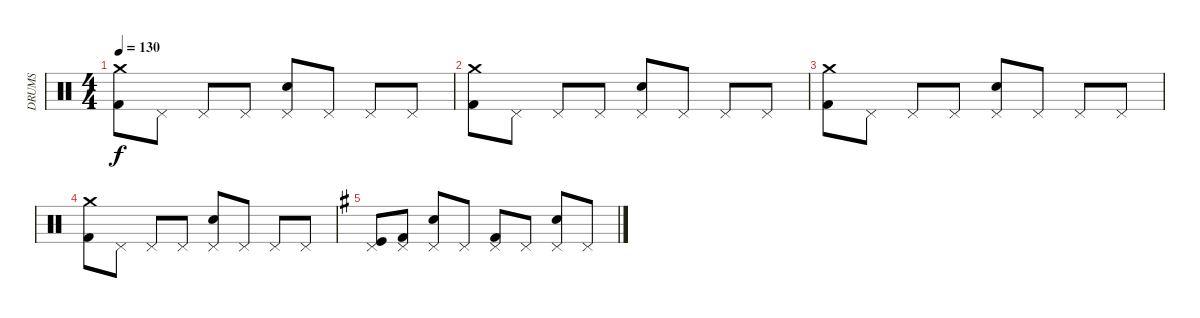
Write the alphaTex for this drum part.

\track ("DRUMS" "DRUMS") {instrument percussion}
\staff {score}
\articulation defaults
\ts (4 4)
\tempo 130
\clef neutral
\ks c
("Crash medium (hit)" "Kick (hit) 2").8{dy f} "Pedal Hi-Hat (hit)".8 "Pedal Hi-Hat (hit)".8 "Pedal Hi-Hat (hit)".8 ("Pedal Hi-Hat (hit)" "Snare (hit) 2").8 "Pedal Hi-Hat (hit)".8 "Pedal Hi-Hat (hit)".8 "Pedal Hi-Hat (hit)".8 |
("Crash medium (hit)" "Kick (hit) 2").8 "Pedal Hi-Hat (hit)".8 "Pedal Hi-Hat (hit)".8 "Pedal Hi-Hat (hit)".8 ("Pedal Hi-Hat (hit)" "Snare (hit) 2").8 "Pedal Hi-Hat (hit)".8 "Pedal Hi-Hat (hit)".8 "Pedal Hi-Hat (hit)".8 |
("Crash medium (hit)" "Kick (hit) 2").8 "Pedal Hi-Hat (hit)".8 "Pedal Hi-Hat (hit)".8 "Pedal Hi-Hat (hit)".8 ("Pedal Hi-Hat (hit)" "Snare (hit) 2").8 "Pedal Hi-Hat (hit)".8 "Pedal Hi-Hat (hit)".8 "Pedal Hi-Hat (hit)".8 |
("Crash medium (hit)" "Kick (hit) 2").8 "Pedal Hi-Hat (hit)".8 "Pedal Hi-Hat (hit)".8 "Pedal Hi-Hat (hit)".8 ("Pedal Hi-Hat (hit)" "Snare (hit) 2").8 "Pedal Hi-Hat (hit)".8 "Pedal Hi-Hat (hit)".8 "Pedal Hi-Hat (hit)".8 |
\ks g
("Pedal Hi-Hat (hit)" "Kick (hit)").8 ("Pedal Hi-Hat (hit)" "Kick (hit) 2").8 ("Pedal Hi-Hat (hit)" "Snare (hit) 2").8 "Pedal Hi-Hat (hit)".8 ("Pedal Hi-Hat (hit)" "Kick (hit) 2").8 "Pedal Hi-Hat (hit)".8 ("Pedal Hi-Hat (hit)" "Snare (hit) 2").8 "Pedal Hi-Hat (hit)".8
